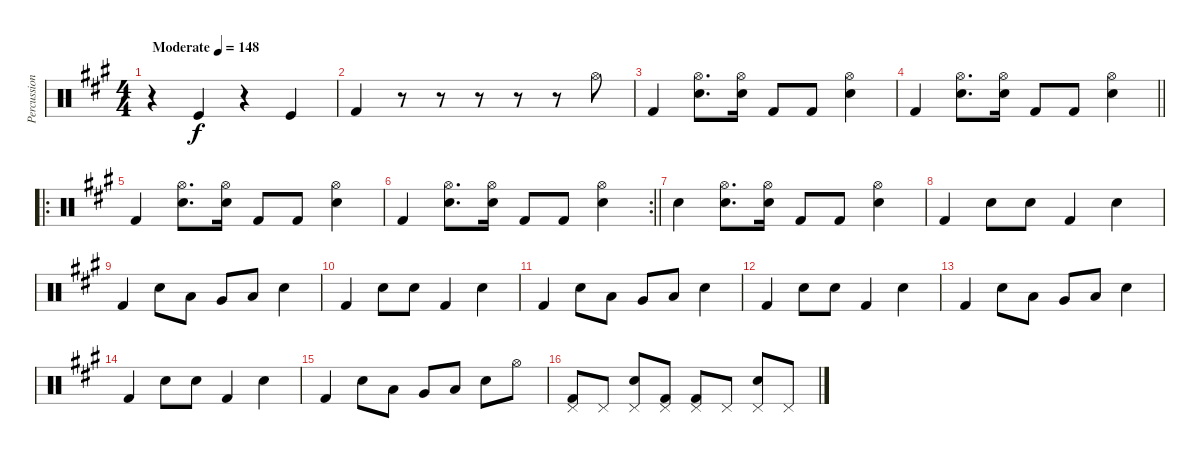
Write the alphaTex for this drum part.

\track ("Percussion" "Percussion") {instrument percussion}
\staff {score}
\articulation defaults
\ts (4 4)
\tempo (148 "Moderate")
\clef neutral
\ks a
r.4{dy f} "Kick (hit)".4 r.4 "Kick (hit)".4 |
"Kick (hit) 2".4 r.8 r.8 r.8 r.8 r.8 "Hi-Hat (open)".8 |
"Kick (hit) 2".4 ("Hi-Hat (open)" "Electric Snare (hit)").8{d} ("Hi-Hat (open)" "Electric Snare (hit)").16 "Kick (hit) 2".8 "Kick (hit) 2".8 ("Hi-Hat (open)" "Electric Snare (hit)").4 |
\barLineRight lightlight "Kick (hit) 2".4
("Hi-Hat (open)" "Electric Snare (hit)").8{d} ("Hi-Hat (open)" "Electric Snare (hit)").16 "Kick (hit) 2".8 "Kick (hit) 2".8 ("Hi-Hat (open)" "Electric Snare (hit)").4 |
\ro "Kick (hit) 2".4
("Hi-Hat (open)" "Electric Snare (hit)").8{d} ("Hi-Hat (open)" "Electric Snare (hit)").16 "Kick (hit) 2".8 "Kick (hit) 2".8 ("Hi-Hat (open)" "Electric Snare (hit)").4 |
\rc 2
\barLineRight lightlight "Kick (hit) 2".4
("Hi-Hat (open)" "Electric Snare (hit)").8{d} ("Hi-Hat (open)" "Electric Snare (hit)").16 "Kick (hit) 2".8 "Kick (hit) 2".8 ("Hi-Hat (open)" "Electric Snare (hit)").4 |
"Electric Snare (hit)".4 ("Hi-Hat (open)" "Electric Snare (hit)").8{d} ("Hi-Hat (open)" "Electric Snare (hit)").16 "Kick (hit) 2".8 "Kick (hit) 2".8 ("Hi-Hat (open)" "Electric Snare (hit)").4 |
"Kick (hit) 2".4 "Electric Snare (hit)".8 "Electric Snare (hit)".8 "Kick (hit) 2".4 "Electric Snare (hit)".4 |
"Kick (hit) 2".4 "Electric Snare (hit)".8 "Low Tom (hit)".8 "Very Low Tom (hit)".8 "Low Floor Tom (hit)".8 "Electric Snare (hit)".4 |
"Kick (hit) 2".4 "Electric Snare (hit)".8 "Electric Snare (hit)".8 "Kick (hit) 2".4 "Electric Snare (hit)".4 |
"Kick (hit) 2".4 "Electric Snare (hit)".8 "Low Tom (hit)".8 "Very Low Tom (hit)".8 "Low Floor Tom (hit)".8 "Electric Snare (hit)".4 |
"Kick (hit) 2".4 "Electric Snare (hit)".8 "Electric Snare (hit)".8 "Kick (hit) 2".4 "Electric Snare (hit)".4 |
"Kick (hit) 2".4 "Electric Snare (hit)".8 "Low Tom (hit)".8 "Very Low Tom (hit)".8 "Low Floor Tom (hit)".8 "Electric Snare (hit)".4 |
"Kick (hit) 2".4 "Electric Snare (hit)".8 "Electric Snare (hit)".8 "Kick (hit) 2".4 "Electric Snare (hit)".4 |
"Kick (hit) 2".4 "Electric Snare (hit)".8 "Low Tom (hit)".8 "Very Low Tom (hit)".8 "Low Floor Tom (hit)".8 "Electric Snare (hit)".8 "Hi-Hat (open)".8 |
("Pedal Hi-Hat (hit)" "Kick (hit) 2").8 "Pedal Hi-Hat (hit)".8 ("Pedal Hi-Hat (hit)" "Electric Snare (hit)").8 ("Pedal Hi-Hat (hit)" "Kick (hit) 2").8 ("Pedal Hi-Hat (hit)" "Kick (hit) 2").8 "Pedal Hi-Hat (hit)".8 ("Pedal Hi-Hat (hit)" "Electric Snare (hit)").8 "Pedal Hi-Hat (hit)".8
